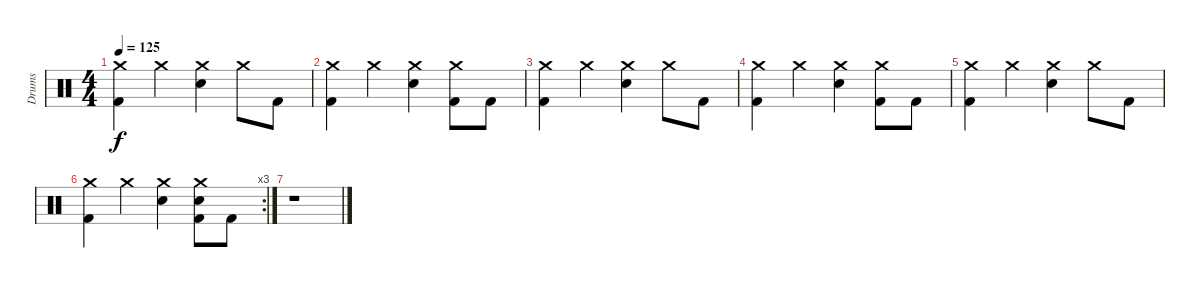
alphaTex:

\track ("Drums" "Drums") {instrument percussion}
\staff {score}
\articulation defaults
\ts (4 4)
\tempo 125
\clef neutral
\ks c
("Crash medium (hit)" "Kick (hit) 2").4{dy f} "Crash medium (hit)".4 ("Crash medium (hit)" "Electric Snare (hit)").4 "Crash medium (hit)".8 "Kick (hit) 2".8 |
("Crash medium (hit)" "Kick (hit) 2").4 "Crash medium (hit)".4 ("Crash medium (hit)" "Electric Snare (hit)").4 ("Crash medium (hit)" "Kick (hit) 2").8 "Kick (hit) 2".8 |
("Crash medium (hit)" "Kick (hit) 2").4 "Crash medium (hit)".4 ("Crash medium (hit)" "Electric Snare (hit)").4 "Crash medium (hit)".8 "Kick (hit) 2".8 |
("Crash medium (hit)" "Kick (hit) 2").4 "Crash medium (hit)".4 ("Crash medium (hit)" "Electric Snare (hit)").4 ("Crash medium (hit)" "Kick (hit) 2").8 "Kick (hit) 2".8 |
("Crash medium (hit)" "Kick (hit) 2").4 "Crash medium (hit)".4 ("Crash medium (hit)" "Electric Snare (hit)").4 "Crash medium (hit)".8 "Kick (hit) 2".8 |
\rc 3
("Crash medium (hit)" "Kick (hit) 2").4 "Crash medium (hit)".4 ("Crash medium (hit)" "Electric Snare (hit)").4 ("Crash medium (hit)" "Electric Snare (hit)" "Kick (hit) 2").8 "Kick (hit) 2".8 |
r.1
